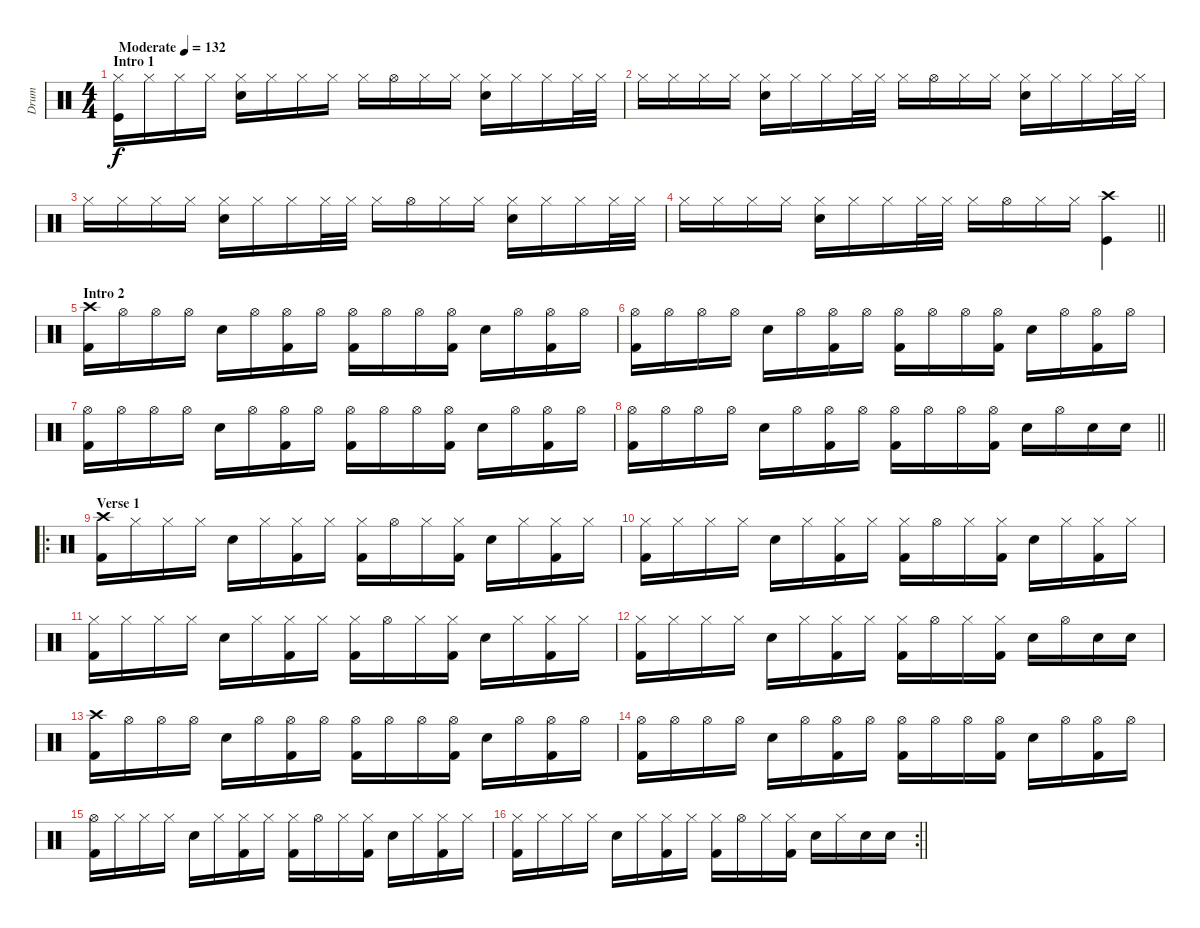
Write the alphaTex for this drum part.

\track ("Drum" "Drum") {instrument percussion}
\staff {score}
\articulation defaults
\ts (4 4)
\section ("" "Intro 1")
\tempo (132 "Moderate")
\clef neutral
\ks c
("Hi-Hat (closed)" "Kick (hit)").16{dy f} "Hi-Hat (closed)".16 "Hi-Hat (closed)".16 "Hi-Hat (closed)".16 ("Hi-Hat (closed)" "Snare (hit) 2").16 "Hi-Hat (closed)".16 "Hi-Hat (closed)".16 "Hi-Hat (closed)".16 "Hi-Hat (closed)".16 "Hi-Hat (open)".16 "Hi-Hat (closed)".16 "Hi-Hat (closed)".16 ("Hi-Hat (closed)" "Snare (hit) 2").16 "Hi-Hat (closed)".16 "Hi-Hat (closed)".16 "Hi-Hat (closed)".32 "Hi-Hat (closed)".32 |
"Hi-Hat (closed)".16 "Hi-Hat (closed)".16 "Hi-Hat (closed)".16 "Hi-Hat (closed)".16 ("Hi-Hat (closed)" "Snare (hit) 2").16 "Hi-Hat (closed)".16 "Hi-Hat (closed)".16 "Hi-Hat (closed)".32 "Hi-Hat (closed)".32 "Hi-Hat (closed)".16 "Hi-Hat (open)".16 "Hi-Hat (closed)".16 "Hi-Hat (closed)".16 ("Hi-Hat (closed)" "Snare (hit) 2").16 "Hi-Hat (closed)".16 "Hi-Hat (closed)".16 "Hi-Hat (closed)".32 "Hi-Hat (closed)".32 |
"Hi-Hat (closed)".16 "Hi-Hat (closed)".16 "Hi-Hat (closed)".16 "Hi-Hat (closed)".16 ("Hi-Hat (closed)" "Snare (hit) 2").16 "Hi-Hat (closed)".16 "Hi-Hat (closed)".16 "Hi-Hat (closed)".32 "Hi-Hat (closed)".32 "Hi-Hat (closed)".16 "Hi-Hat (open)".16 "Hi-Hat (closed)".16 "Hi-Hat (closed)".16 ("Hi-Hat (closed)" "Snare (hit) 2").16 "Hi-Hat (closed)".16 "Hi-Hat (closed)".16 "Hi-Hat (closed)".32 "Hi-Hat (closed)".32 |
\barLineRight lightlight "Hi-Hat (closed)".16 "Hi-Hat (closed)".16 "Hi-Hat (closed)".16 "Hi-Hat (closed)".16
("Hi-Hat (closed)" "Snare (hit) 2").16 "Hi-Hat (closed)".16 "Hi-Hat (closed)".16 "Hi-Hat (closed)".32 "Hi-Hat (closed)".32 "Hi-Hat (closed)".16 "Hi-Hat (open)".16 "Hi-Hat (closed)".16 "Hi-Hat (closed)".16 ("Crash high (hit)" "Kick (hit)").4 |
\section ("" "Intro 2")
("Crash high (hit)" "Kick (hit) 2").16 "Hi-Hat (open)".16 "Hi-Hat (open)".16 "Hi-Hat (open)".16 "Snare (hit) 2".16 "Hi-Hat (open)".16 ("Hi-Hat (open)" "Kick (hit) 2").16 "Hi-Hat (open)".16 ("Hi-Hat (open)" "Kick (hit) 2").16 "Hi-Hat (open)".16 "Hi-Hat (open)".16 ("Hi-Hat (open)" "Kick (hit) 2").16 "Snare (hit) 2".16 "Hi-Hat (open)".16 ("Hi-Hat (open)" "Kick (hit) 2").16 "Hi-Hat (open)".16 |
("Hi-Hat (open)" "Kick (hit) 2").16 "Hi-Hat (open)".16 "Hi-Hat (open)".16 "Hi-Hat (open)".16 "Snare (hit) 2".16 "Hi-Hat (open)".16 ("Hi-Hat (open)" "Kick (hit) 2").16 "Hi-Hat (open)".16 ("Hi-Hat (open)" "Kick (hit) 2").16 "Hi-Hat (open)".16 "Hi-Hat (open)".16 ("Hi-Hat (open)" "Kick (hit) 2").16 "Snare (hit) 2".16 "Hi-Hat (open)".16 ("Hi-Hat (open)" "Kick (hit) 2").16 "Hi-Hat (open)".16 |
("Hi-Hat (open)" "Kick (hit) 2").16 "Hi-Hat (open)".16 "Hi-Hat (open)".16 "Hi-Hat (open)".16 "Snare (hit) 2".16 "Hi-Hat (open)".16 ("Hi-Hat (open)" "Kick (hit) 2").16 "Hi-Hat (open)".16 ("Hi-Hat (open)" "Kick (hit) 2").16 "Hi-Hat (open)".16 "Hi-Hat (open)".16 ("Hi-Hat (open)" "Kick (hit) 2").16 "Snare (hit) 2".16 "Hi-Hat (open)".16 ("Hi-Hat (open)" "Kick (hit) 2").16 "Hi-Hat (open)".16 |
\barLineRight lightlight
("Hi-Hat (open)" "Kick (hit) 2").16 "Hi-Hat (open)".16 "Hi-Hat (open)".16 "Hi-Hat (open)".16 "Snare (hit) 2".16 "Hi-Hat (open)".16 ("Hi-Hat (open)" "Kick (hit) 2").16 "Hi-Hat (open)".16 ("Hi-Hat (open)" "Kick (hit) 2").16 "Hi-Hat (open)".16 "Hi-Hat (open)".16 ("Hi-Hat (open)" "Kick (hit) 2").16 "Snare (hit) 2".16 "Hi-Hat (open)".16 "Snare (hit) 2".16 "Snare (hit) 2".16 |
\ro
\section ("" "Verse 1")
("Crash high (hit)" "Kick (hit) 2").16 "Hi-Hat (closed)".16 "Hi-Hat (closed)".16 "Hi-Hat (closed)".16 "Snare (hit) 2".16 "Hi-Hat (closed)".16 ("Hi-Hat (closed)" "Kick (hit) 2").16 "Hi-Hat (closed)".16 ("Hi-Hat (closed)" "Kick (hit) 2").16 "Hi-Hat (open)".16 "Hi-Hat (closed)".16 ("Hi-Hat (closed)" "Kick (hit) 2").16 "Snare (hit) 2".16 "Hi-Hat (closed)".16 ("Hi-Hat (closed)" "Kick (hit) 2").16 "Hi-Hat (closed)".16 |
("Hi-Hat (closed)" "Kick (hit) 2").16 "Hi-Hat (closed)".16 "Hi-Hat (closed)".16 "Hi-Hat (closed)".16 "Snare (hit) 2".16 "Hi-Hat (closed)".16 ("Hi-Hat (closed)" "Kick (hit) 2").16 "Hi-Hat (closed)".16 ("Hi-Hat (closed)" "Kick (hit) 2").16 "Hi-Hat (open)".16 "Hi-Hat (closed)".16 ("Hi-Hat (closed)" "Kick (hit) 2").16 "Snare (hit) 2".16 "Hi-Hat (closed)".16 ("Hi-Hat (closed)" "Kick (hit) 2").16 "Hi-Hat (closed)".16 |
("Hi-Hat (closed)" "Kick (hit) 2").16 "Hi-Hat (closed)".16 "Hi-Hat (closed)".16 "Hi-Hat (closed)".16 "Snare (hit) 2".16 "Hi-Hat (closed)".16 ("Hi-Hat (closed)" "Kick (hit) 2").16 "Hi-Hat (closed)".16 ("Hi-Hat (closed)" "Kick (hit) 2").16 "Hi-Hat (open)".16 "Hi-Hat (closed)".16 ("Hi-Hat (closed)" "Kick (hit) 2").16 "Snare (hit) 2".16 "Hi-Hat (closed)".16 ("Hi-Hat (closed)" "Kick (hit) 2").16 "Hi-Hat (closed)".16 |
("Hi-Hat (closed)" "Kick (hit) 2").16 "Hi-Hat (closed)".16 "Hi-Hat (closed)".16 "Hi-Hat (closed)".16 "Snare (hit) 2".16 "Hi-Hat (closed)".16 ("Hi-Hat (closed)" "Kick (hit) 2").16 "Hi-Hat (closed)".16 ("Hi-Hat (closed)" "Kick (hit) 2").16 "Hi-Hat (open)".16 "Hi-Hat (closed)".16 ("Hi-Hat (closed)" "Kick (hit) 2").16 "Snare (hit) 2".16 "Hi-Hat (open)".16 "Snare (hit) 2".16 "Snare (hit) 2".16 |
("Crash high (hit)" "Kick (hit) 2").16 "Hi-Hat (open)".16 "Hi-Hat (open)".16 "Hi-Hat (open)".16 "Snare (hit) 2".16 "Hi-Hat (open)".16 ("Hi-Hat (open)" "Kick (hit) 2").16 "Hi-Hat (open)".16 ("Hi-Hat (open)" "Kick (hit) 2").16 "Hi-Hat (open)".16 "Hi-Hat (open)".16 ("Hi-Hat (open)" "Kick (hit) 2").16 "Snare (hit) 2".16 "Hi-Hat (open)".16 ("Hi-Hat (open)" "Kick (hit) 2").16 "Hi-Hat (open)".16 |
("Hi-Hat (open)" "Kick (hit) 2").16 "Hi-Hat (open)".16 "Hi-Hat (open)".16 "Hi-Hat (open)".16 "Snare (hit) 2".16 "Hi-Hat (open)".16 ("Hi-Hat (open)" "Kick (hit) 2").16 "Hi-Hat (open)".16 ("Hi-Hat (open)" "Kick (hit) 2").16 "Hi-Hat (open)".16 "Hi-Hat (open)".16 ("Hi-Hat (open)" "Kick (hit) 2").16 "Snare (hit) 2".16 "Hi-Hat (open)".16 ("Hi-Hat (open)" "Kick (hit) 2").16 "Hi-Hat (open)".16 |
("Hi-Hat (open)" "Kick (hit) 2").16 "Hi-Hat (closed)".16 "Hi-Hat (closed)".16 "Hi-Hat (closed)".16 "Snare (hit) 2".16 "Hi-Hat (closed)".16 ("Hi-Hat (closed)" "Kick (hit) 2").16 "Hi-Hat (closed)".16 ("Hi-Hat (closed)" "Kick (hit) 2").16 "Hi-Hat (open)".16 "Hi-Hat (closed)".16 ("Hi-Hat (closed)" "Kick (hit) 2").16 "Snare (hit) 2".16 "Hi-Hat (closed)".16 ("Hi-Hat (closed)" "Kick (hit) 2").16 "Hi-Hat (closed)".16 |
\rc 2
\barLineRight lightlight
("Hi-Hat (closed)" "Kick (hit) 2").16 "Hi-Hat (closed)".16 "Hi-Hat (closed)".16 "Hi-Hat (closed)".16 "Snare (hit) 2".16 "Hi-Hat (closed)".16 ("Hi-Hat (closed)" "Kick (hit) 2").16 "Hi-Hat (closed)".16 ("Hi-Hat (closed)" "Kick (hit) 2").16 "Hi-Hat (open)".16 "Hi-Hat (closed)".16 ("Hi-Hat (closed)" "Kick (hit) 2").16 "Snare (hit) 2".16 "Hi-Hat (closed)".16 "Snare (hit) 2".16 "Snare (hit) 2".16
